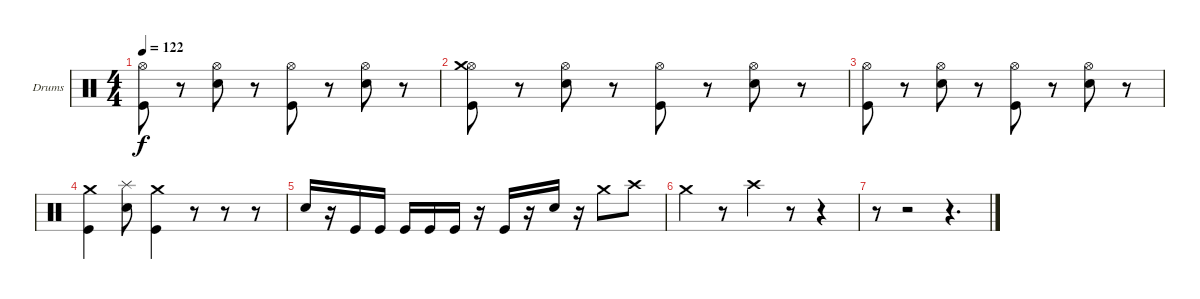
\bracketExtendMode groupsimilarinstruments
\firstSystemTrackNameOrientation horizontal
\otherSystemsTrackNameOrientation horizontal
\track ("Drumkit" "Drums") {instrument percussion}
\staff {score}
\articulation defaults
\ts (4 4)
\tempo 122
\clef neutral
\ks c
("Kick (hit)" "Hi-Hat (open)").8{dy f} r.8 ("Snare (hit) 2" "Hi-Hat (open)").8 r.8 ("Kick (hit)" "Hi-Hat (open)").8 r.8 ("Snare (hit) 2" "Hi-Hat (open)").8 r.8 |
("Kick (hit)" "Hi-Hat (open)" "Crash medium (hit)").8 r.8 ("Snare (hit) 2" "Hi-Hat (open)").8 r.8 ("Kick (hit)" "Hi-Hat (open)").8 r.8 ("Snare (hit) 2" "Hi-Hat (open)").8 r.8 |
("Kick (hit)" "Hi-Hat (open)").8 r.8 ("Snare (hit) 2" "Hi-Hat (open)").8 r.8 ("Kick (hit)" "Hi-Hat (open)").8 r.8 ("Snare (hit) 2" "Hi-Hat (open)").8 r.8 |
("Kick (hit)" "Crash medium (hit)").4 ("Snare (hit) 2" "Splash (hit)").8 ("Kick (hit)" "Crash medium (hit)").4 r.8 r.8 r.8 |
"Snare (hit) 2".16 r.16 "Kick (hit)".16 "Kick (hit)".16 "Kick (hit)".16 "Kick (hit)".16 "Kick (hit)".16 r.16 "Kick (hit)".16 r.16 "Snare (hit) 2".16 r.16 "Crash medium (hit)".8 "Crash high (hit)".8 |
"Crash medium (hit)".4 r.8 "Crash high (hit)".4 r.8 r.4 |
r.8 r.2 r.4{d}
